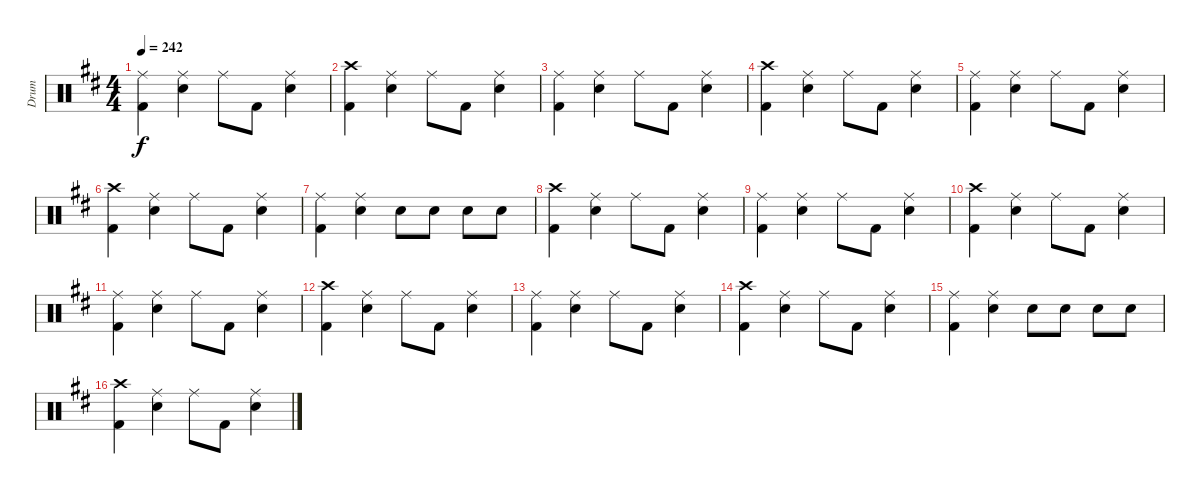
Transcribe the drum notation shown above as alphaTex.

\track ("Drum" "Drum") {instrument percussion}
\staff {score}
\articulation defaults
\ts (4 4)
\tempo 242
\clef neutral
\ks d
("Ride (middle)" "Kick (hit) 2").4{dy f} ("Ride (middle)" "Snare (hit) 2").4 "Ride (middle)".8 "Kick (hit) 2".8 ("Ride (middle)" "Snare (hit) 2").4 |
("Crash high (hit)" "Kick (hit) 2").4 ("Ride (middle)" "Snare (hit) 2").4 "Ride (middle)".8 "Kick (hit) 2".8 ("Ride (middle)" "Snare (hit) 2").4 |
("Ride (middle)" "Kick (hit) 2").4 ("Ride (middle)" "Snare (hit) 2").4 "Ride (middle)".8 "Kick (hit) 2".8 ("Ride (middle)" "Snare (hit) 2").4 |
("Crash high (hit)" "Kick (hit) 2").4 ("Ride (middle)" "Snare (hit) 2").4 "Ride (middle)".8 "Kick (hit) 2".8 ("Ride (middle)" "Snare (hit) 2").4 |
("Ride (middle)" "Kick (hit) 2").4 ("Ride (middle)" "Snare (hit) 2").4 "Ride (middle)".8 "Kick (hit) 2".8 ("Ride (middle)" "Snare (hit) 2").4 |
("Crash high (hit)" "Kick (hit) 2").4 ("Ride (middle)" "Snare (hit) 2").4 "Ride (middle)".8 "Kick (hit) 2".8 ("Ride (middle)" "Snare (hit) 2").4 |
("Ride (middle)" "Kick (hit) 2").4 ("Ride (middle)" "Snare (hit) 2").4 "Snare (hit) 2".8 "Snare (hit) 2".8 "Snare (hit) 2".8 "Snare (hit) 2".8 |
("Crash high (hit)" "Kick (hit) 2").4 ("Ride (middle)" "Snare (hit) 2").4 "Ride (middle)".8 "Kick (hit) 2".8 ("Ride (middle)" "Snare (hit) 2").4 |
("Ride (middle)" "Kick (hit) 2").4 ("Ride (middle)" "Snare (hit) 2").4 "Ride (middle)".8 "Kick (hit) 2".8 ("Ride (middle)" "Snare (hit) 2").4 |
("Crash high (hit)" "Kick (hit) 2").4 ("Ride (middle)" "Snare (hit) 2").4 "Ride (middle)".8 "Kick (hit) 2".8 ("Ride (middle)" "Snare (hit) 2").4 |
("Ride (middle)" "Kick (hit) 2").4 ("Ride (middle)" "Snare (hit) 2").4 "Ride (middle)".8 "Kick (hit) 2".8 ("Ride (middle)" "Snare (hit) 2").4 |
("Crash high (hit)" "Kick (hit) 2").4 ("Ride (middle)" "Snare (hit) 2").4 "Ride (middle)".8 "Kick (hit) 2".8 ("Ride (middle)" "Snare (hit) 2").4 |
("Ride (middle)" "Kick (hit) 2").4 ("Ride (middle)" "Snare (hit) 2").4 "Ride (middle)".8 "Kick (hit) 2".8 ("Ride (middle)" "Snare (hit) 2").4 |
("Crash high (hit)" "Kick (hit) 2").4 ("Ride (middle)" "Snare (hit) 2").4 "Ride (middle)".8 "Kick (hit) 2".8 ("Ride (middle)" "Snare (hit) 2").4 |
("Ride (middle)" "Kick (hit) 2").4 ("Ride (middle)" "Snare (hit) 2").4 "Snare (hit) 2".8 "Snare (hit) 2".8 "Snare (hit) 2".8 "Snare (hit) 2".8 |
("Crash high (hit)" "Kick (hit) 2").4 ("Ride (middle)" "Snare (hit) 2").4 "Ride (middle)".8 "Kick (hit) 2".8 ("Ride (middle)" "Snare (hit) 2").4
